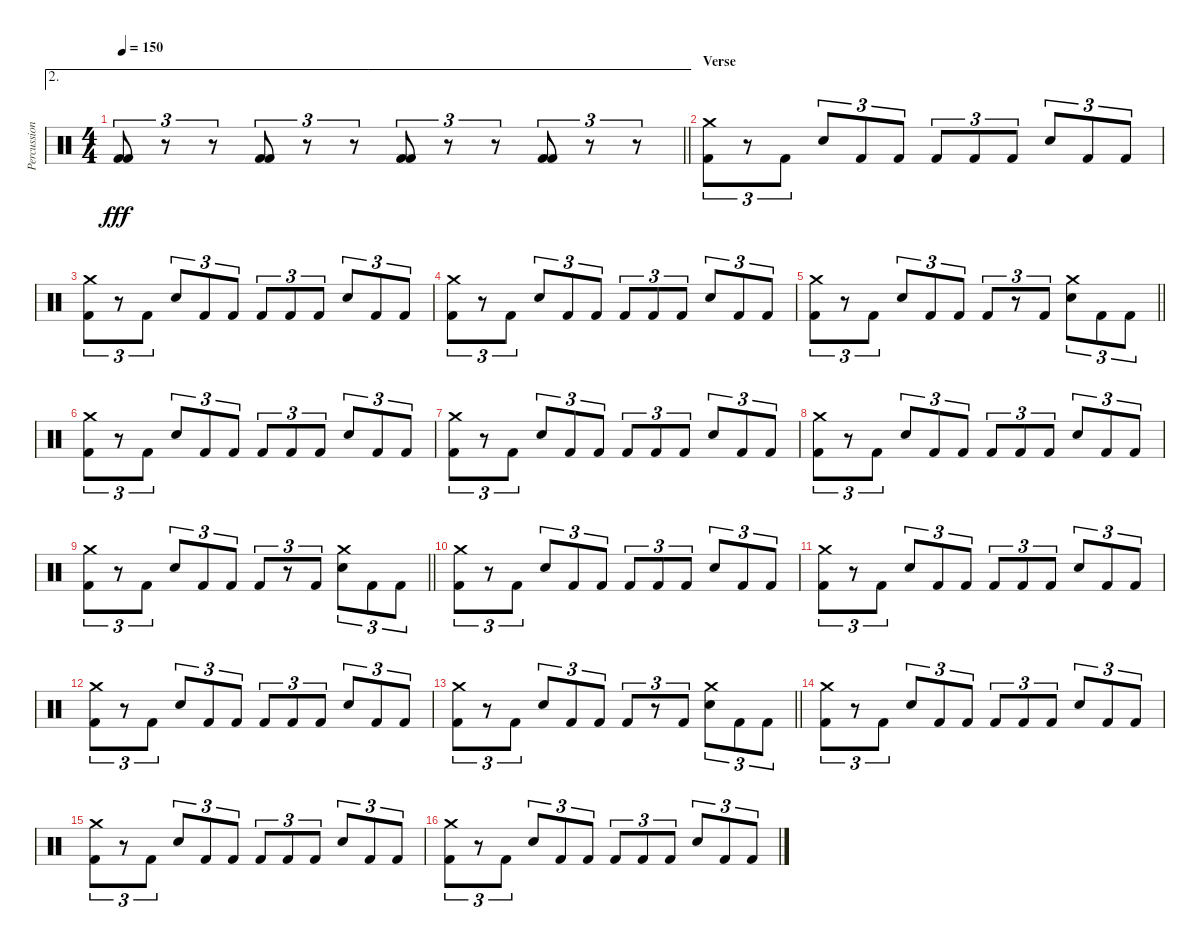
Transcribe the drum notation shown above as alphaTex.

\track ("Percussion" "Percussion") {instrument percussion}
\staff {score}
\articulation defaults
\ae 2
\ts (4 4)
\tempo 150
\clef neutral
\barLineRight lightlight
\ks c
("Kick (hit) 2" "Kick (hit) 2").8{tu (3 2) dy fff} r.8{tu (3 2)} r.8{tu (3 2)} ("Kick (hit) 2" "Kick (hit) 2").8{tu (3 2)} r.8{tu (3 2)} r.8{tu (3 2)} ("Kick (hit) 2" "Kick (hit) 2").8{tu (3 2)} r.8{tu (3 2)} r.8{tu (3 2)} ("Kick (hit) 2" "Kick (hit) 2").8{tu (3 2)} r.8{tu (3 2)} r.8{tu (3 2)} |
\section ("" "Verse")
("Crash medium (hit)" "Kick (hit) 2").8{tu (3 2)} r.8{tu (3 2)} "Kick (hit) 2".8{tu (3 2)} "Snare (hit) 2".8{tu (3 2)} "Kick (hit) 2".8{tu (3 2)} "Kick (hit) 2".8{tu (3 2)} "Kick (hit) 2".8{tu (3 2)} "Kick (hit) 2".8{tu (3 2)} "Kick (hit) 2".8{tu (3 2)} "Snare (hit) 2".8{tu (3 2)} "Kick (hit) 2".8{tu (3 2)} "Kick (hit) 2".8{tu (3 2)} |
("Crash medium (hit)" "Kick (hit) 2").8{tu (3 2)} r.8{tu (3 2)} "Kick (hit) 2".8{tu (3 2)} "Snare (hit) 2".8{tu (3 2)} "Kick (hit) 2".8{tu (3 2)} "Kick (hit) 2".8{tu (3 2)} "Kick (hit) 2".8{tu (3 2)} "Kick (hit) 2".8{tu (3 2)} "Kick (hit) 2".8{tu (3 2)} "Snare (hit) 2".8{tu (3 2)} "Kick (hit) 2".8{tu (3 2)} "Kick (hit) 2".8{tu (3 2)} |
("Crash medium (hit)" "Kick (hit) 2").8{tu (3 2)} r.8{tu (3 2)} "Kick (hit) 2".8{tu (3 2)} "Snare (hit) 2".8{tu (3 2)} "Kick (hit) 2".8{tu (3 2)} "Kick (hit) 2".8{tu (3 2)} "Kick (hit) 2".8{tu (3 2)} "Kick (hit) 2".8{tu (3 2)} "Kick (hit) 2".8{tu (3 2)} "Snare (hit) 2".8{tu (3 2)} "Kick (hit) 2".8{tu (3 2)} "Kick (hit) 2".8{tu (3 2)} |
\barLineRight lightlight
("Crash medium (hit)" "Kick (hit) 2").8{tu (3 2)} r.8{tu (3 2)} "Kick (hit) 2".8{tu (3 2)} "Snare (hit) 2".8{tu (3 2)} "Kick (hit) 2".8{tu (3 2)} "Kick (hit) 2".8{tu (3 2)} "Kick (hit) 2".8{tu (3 2)} r.8{tu (3 2)} "Kick (hit) 2".8{tu (3 2)} ("Crash medium (hit)" "Snare (hit) 2").8{tu (3 2)} "Kick (hit) 2".8{tu (3 2)} "Kick (hit) 2".8{tu (3 2)} |
("Crash medium (hit)" "Kick (hit) 2").8{tu (3 2)} r.8{tu (3 2)} "Kick (hit) 2".8{tu (3 2)} "Snare (hit) 2".8{tu (3 2)} "Kick (hit) 2".8{tu (3 2)} "Kick (hit) 2".8{tu (3 2)} "Kick (hit) 2".8{tu (3 2)} "Kick (hit) 2".8{tu (3 2)} "Kick (hit) 2".8{tu (3 2)} "Snare (hit) 2".8{tu (3 2)} "Kick (hit) 2".8{tu (3 2)} "Kick (hit) 2".8{tu (3 2)} |
("Crash medium (hit)" "Kick (hit) 2").8{tu (3 2)} r.8{tu (3 2)} "Kick (hit) 2".8{tu (3 2)} "Snare (hit) 2".8{tu (3 2)} "Kick (hit) 2".8{tu (3 2)} "Kick (hit) 2".8{tu (3 2)} "Kick (hit) 2".8{tu (3 2)} "Kick (hit) 2".8{tu (3 2)} "Kick (hit) 2".8{tu (3 2)} "Snare (hit) 2".8{tu (3 2)} "Kick (hit) 2".8{tu (3 2)} "Kick (hit) 2".8{tu (3 2)} |
("Crash medium (hit)" "Kick (hit) 2").8{tu (3 2)} r.8{tu (3 2)} "Kick (hit) 2".8{tu (3 2)} "Snare (hit) 2".8{tu (3 2)} "Kick (hit) 2".8{tu (3 2)} "Kick (hit) 2".8{tu (3 2)} "Kick (hit) 2".8{tu (3 2)} "Kick (hit) 2".8{tu (3 2)} "Kick (hit) 2".8{tu (3 2)} "Snare (hit) 2".8{tu (3 2)} "Kick (hit) 2".8{tu (3 2)} "Kick (hit) 2".8{tu (3 2)} |
\barLineRight lightlight
("Crash medium (hit)" "Kick (hit) 2").8{tu (3 2)} r.8{tu (3 2)} "Kick (hit) 2".8{tu (3 2)} "Snare (hit) 2".8{tu (3 2)} "Kick (hit) 2".8{tu (3 2)} "Kick (hit) 2".8{tu (3 2)} "Kick (hit) 2".8{tu (3 2)} r.8{tu (3 2)} "Kick (hit) 2".8{tu (3 2)} ("Crash medium (hit)" "Snare (hit) 2").8{tu (3 2)} "Kick (hit) 2".8{tu (3 2)} "Kick (hit) 2".8{tu (3 2)} |
("Crash medium (hit)" "Kick (hit) 2").8{tu (3 2)} r.8{tu (3 2)} "Kick (hit) 2".8{tu (3 2)} "Snare (hit) 2".8{tu (3 2)} "Kick (hit) 2".8{tu (3 2)} "Kick (hit) 2".8{tu (3 2)} "Kick (hit) 2".8{tu (3 2)} "Kick (hit) 2".8{tu (3 2)} "Kick (hit) 2".8{tu (3 2)} "Snare (hit) 2".8{tu (3 2)} "Kick (hit) 2".8{tu (3 2)} "Kick (hit) 2".8{tu (3 2)} |
("Crash medium (hit)" "Kick (hit) 2").8{tu (3 2)} r.8{tu (3 2)} "Kick (hit) 2".8{tu (3 2)} "Snare (hit) 2".8{tu (3 2)} "Kick (hit) 2".8{tu (3 2)} "Kick (hit) 2".8{tu (3 2)} "Kick (hit) 2".8{tu (3 2)} "Kick (hit) 2".8{tu (3 2)} "Kick (hit) 2".8{tu (3 2)} "Snare (hit) 2".8{tu (3 2)} "Kick (hit) 2".8{tu (3 2)} "Kick (hit) 2".8{tu (3 2)} |
("Crash medium (hit)" "Kick (hit) 2").8{tu (3 2)} r.8{tu (3 2)} "Kick (hit) 2".8{tu (3 2)} "Snare (hit) 2".8{tu (3 2)} "Kick (hit) 2".8{tu (3 2)} "Kick (hit) 2".8{tu (3 2)} "Kick (hit) 2".8{tu (3 2)} "Kick (hit) 2".8{tu (3 2)} "Kick (hit) 2".8{tu (3 2)} "Snare (hit) 2".8{tu (3 2)} "Kick (hit) 2".8{tu (3 2)} "Kick (hit) 2".8{tu (3 2)} |
\barLineRight lightlight
("Crash medium (hit)" "Kick (hit) 2").8{tu (3 2)} r.8{tu (3 2)} "Kick (hit) 2".8{tu (3 2)} "Snare (hit) 2".8{tu (3 2)} "Kick (hit) 2".8{tu (3 2)} "Kick (hit) 2".8{tu (3 2)} "Kick (hit) 2".8{tu (3 2)} r.8{tu (3 2)} "Kick (hit) 2".8{tu (3 2)} ("Crash medium (hit)" "Snare (hit) 2").8{tu (3 2)} "Kick (hit) 2".8{tu (3 2)} "Kick (hit) 2".8{tu (3 2)} |
("Crash medium (hit)" "Kick (hit) 2").8{tu (3 2)} r.8{tu (3 2)} "Kick (hit) 2".8{tu (3 2)} "Snare (hit) 2".8{tu (3 2)} "Kick (hit) 2".8{tu (3 2)} "Kick (hit) 2".8{tu (3 2)} "Kick (hit) 2".8{tu (3 2)} "Kick (hit) 2".8{tu (3 2)} "Kick (hit) 2".8{tu (3 2)} "Snare (hit) 2".8{tu (3 2)} "Kick (hit) 2".8{tu (3 2)} "Kick (hit) 2".8{tu (3 2)} |
("Crash medium (hit)" "Kick (hit) 2").8{tu (3 2)} r.8{tu (3 2)} "Kick (hit) 2".8{tu (3 2)} "Snare (hit) 2".8{tu (3 2)} "Kick (hit) 2".8{tu (3 2)} "Kick (hit) 2".8{tu (3 2)} "Kick (hit) 2".8{tu (3 2)} "Kick (hit) 2".8{tu (3 2)} "Kick (hit) 2".8{tu (3 2)} "Snare (hit) 2".8{tu (3 2)} "Kick (hit) 2".8{tu (3 2)} "Kick (hit) 2".8{tu (3 2)} |
("Crash medium (hit)" "Kick (hit) 2").8{tu (3 2)} r.8{tu (3 2)} "Kick (hit) 2".8{tu (3 2)} "Snare (hit) 2".8{tu (3 2)} "Kick (hit) 2".8{tu (3 2)} "Kick (hit) 2".8{tu (3 2)} "Kick (hit) 2".8{tu (3 2)} "Kick (hit) 2".8{tu (3 2)} "Kick (hit) 2".8{tu (3 2)} "Snare (hit) 2".8{tu (3 2)} "Kick (hit) 2".8{tu (3 2)} "Kick (hit) 2".8{tu (3 2)}
